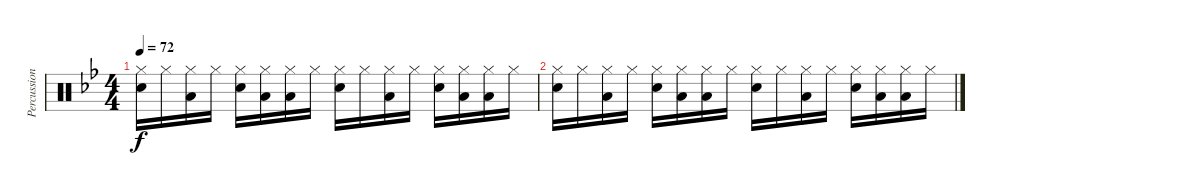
\track ("Percussions" "Percussion") {instrument percussion}
\staff {score}
\articulation defaults
\ts (4 4)
\tempo 72
\clef neutral
\ks bb
("Hi-Hat (closed)" "Snare (hit) 2").16{dy f} "Hi-Hat (closed)".16 ("Hi-Hat (closed)" "Low Tom (hit)").16 "Hi-Hat (closed)".16 ("Hi-Hat (closed)" "Snare (hit) 2").16 ("Hi-Hat (closed)" "Low Tom (hit)").16 ("Hi-Hat (closed)" "Low Tom (hit)").16 "Hi-Hat (closed)".16 ("Hi-Hat (closed)" "Snare (hit) 2").16 "Hi-Hat (closed)".16 ("Hi-Hat (closed)" "Low Tom (hit)").16 "Hi-Hat (closed)".16 ("Hi-Hat (closed)" "Snare (hit) 2").16 ("Hi-Hat (closed)" "Low Tom (hit)").16 ("Hi-Hat (closed)" "Low Tom (hit)").16 "Hi-Hat (closed)".16 |
("Hi-Hat (closed)" "Snare (hit) 2").16 "Hi-Hat (closed)".16 ("Hi-Hat (closed)" "Low Tom (hit)").16 "Hi-Hat (closed)".16 ("Hi-Hat (closed)" "Snare (hit) 2").16 ("Hi-Hat (closed)" "Low Tom (hit)").16 ("Hi-Hat (closed)" "Low Tom (hit)").16 "Hi-Hat (closed)".16 ("Hi-Hat (closed)" "Snare (hit) 2").16 "Hi-Hat (closed)".16 ("Hi-Hat (closed)" "Low Tom (hit)").16 "Hi-Hat (closed)".16 ("Hi-Hat (closed)" "Snare (hit) 2").16 ("Hi-Hat (closed)" "Low Tom (hit)").16 ("Hi-Hat (closed)" "Low Tom (hit)").16 "Hi-Hat (closed)".16
